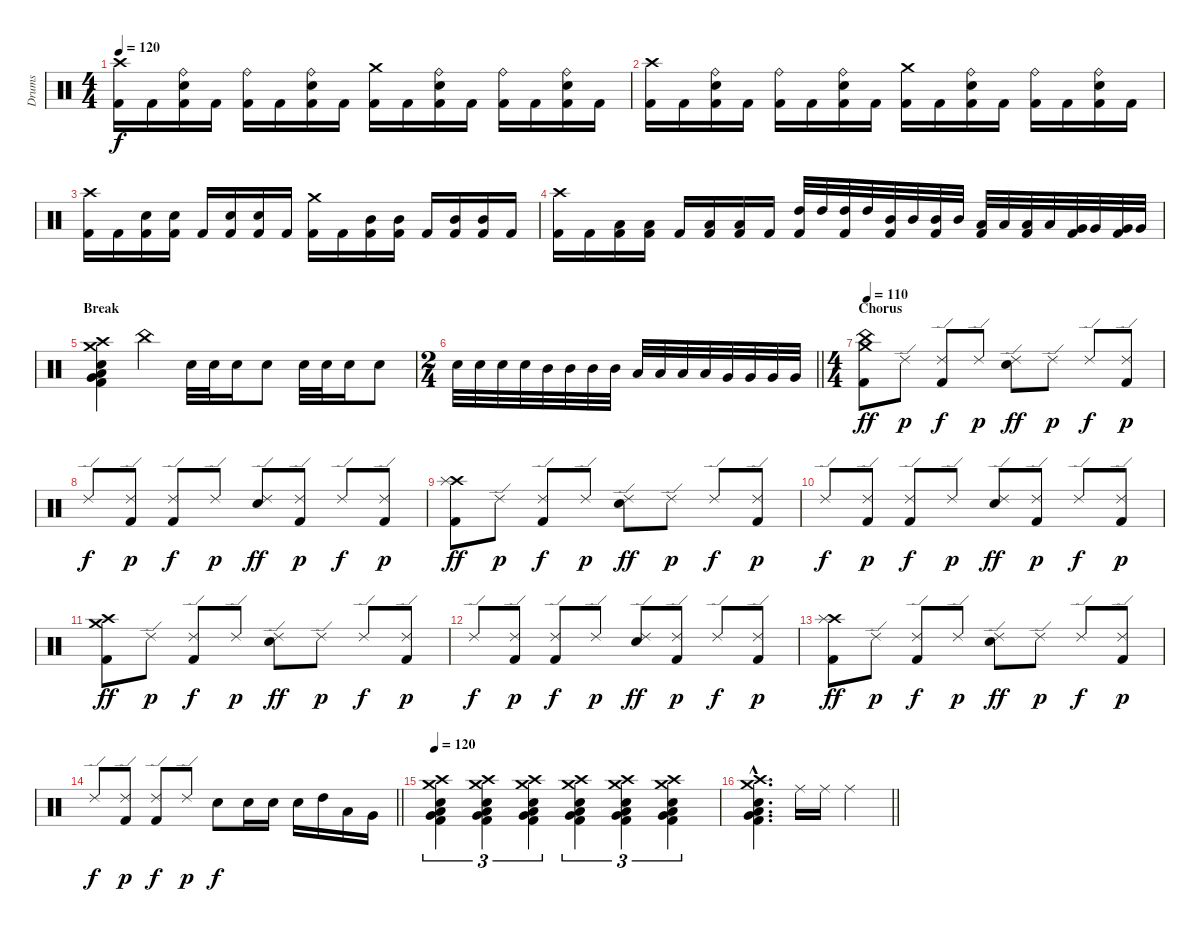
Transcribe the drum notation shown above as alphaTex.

\track ("Drums" "Drums") {instrument percussion}
\staff {score}
\articulation defaults
\ts (4 4)
\tempo 120
\clef neutral
\ks c
("Crash high (hit)" "Kick (hit) 2").16{dy f} "Kick (hit) 2".16 ("Ride (bell)" "Snare (hit) 2" "Kick (hit) 2").16 "Kick (hit) 2".16 ("Ride (bell)" "Kick (hit) 2").16 "Kick (hit) 2".16 ("Ride (bell)" "Snare (hit) 2" "Kick (hit) 2").16 "Kick (hit) 2".16 ("Crash medium (hit)" "Kick (hit) 2").16 "Kick (hit) 2".16 ("Ride (bell)" "Snare (hit) 2" "Kick (hit) 2").16 "Kick (hit) 2".16 ("Ride (bell)" "Kick (hit) 2").16 "Kick (hit) 2".16 ("Ride (bell)" "Snare (hit) 2" "Kick (hit) 2").16 "Kick (hit) 2".16 |
("Crash high (hit)" "Kick (hit) 2").16 "Kick (hit) 2".16 ("Ride (bell)" "Snare (hit) 2" "Kick (hit) 2").16 "Kick (hit) 2".16 ("Ride (bell)" "Kick (hit) 2").16 "Kick (hit) 2".16 ("Ride (bell)" "Snare (hit) 2" "Kick (hit) 2").16 "Kick (hit) 2".16 ("Crash medium (hit)" "Kick (hit) 2").16 "Kick (hit) 2".16 ("Ride (bell)" "Snare (hit) 2" "Kick (hit) 2").16 "Kick (hit) 2".16 ("Ride (bell)" "Kick (hit) 2").16 "Kick (hit) 2".16 ("Ride (bell)" "Snare (hit) 2" "Kick (hit) 2").16 "Kick (hit) 2".16 |
("Crash high (hit)" "Kick (hit) 2").16 "Kick (hit) 2".16 ("Snare (hit) 2" "Kick (hit) 2").16 ("Snare (hit) 2" "Kick (hit) 2").16 "Kick (hit) 2".16 ("Snare (hit) 2" "Kick (hit) 2").16 ("Snare (hit) 2" "Kick (hit) 2").16 "Kick (hit) 2".16 ("Crash medium (hit)" "Kick (hit) 2").16 "Kick (hit) 2".16 ("Mid Tom (hit)" "Kick (hit) 2").16 ("Mid Tom (hit)" "Kick (hit) 2").16 "Kick (hit) 2".16 ("Mid Tom (hit)" "Kick (hit) 2").16 ("Mid Tom (hit)" "Kick (hit) 2").16 "Kick (hit) 2".16 |
("Crash high (hit)" "Kick (hit) 2").16 "Kick (hit) 2".16 ("Low Tom (hit)" "Kick (hit) 2").16 ("Low Tom (hit)" "Kick (hit) 2").16 "Kick (hit) 2".16 ("Low Tom (hit)" "Kick (hit) 2").16 ("Low Tom (hit)" "Kick (hit) 2").16 "Kick (hit) 2".16 ("High Tom (hit)" "Kick (hit) 2").32 "High Tom (hit)".32 ("High Tom (hit)" "Kick (hit) 2").32 "High Tom (hit)".32 ("Mid Tom (hit)" "Kick (hit) 2").32 "Mid Tom (hit)".32 ("Mid Tom (hit)" "Kick (hit) 2").32 "Mid Tom (hit)".32 ("Low Tom (hit)" "Kick (hit) 2").32 "Low Tom (hit)".32 ("Low Tom (hit)" "Kick (hit) 2").32 "Low Tom (hit)".32 ("Very Low Tom (hit)" "Kick (hit) 2").32 "Very Low Tom (hit)".32 ("Very Low Tom (hit)" "Kick (hit) 2").32 "Very Low Tom (hit)".32 |
\section ("" "Break")
("Crash high (hit)" "Crash medium (hit)" "Kick (hit) 2" "Low Floor Tom (hit)" "Very Low Tom (hit)" "Snare (hit) 2").4 "China (hit)".4 "Snare (hit) 2".32 "Snare (hit) 2".32 "Snare (hit) 2".16 "Snare (hit) 2".8 "Snare (hit) 2".32 "Snare (hit) 2".32 "Snare (hit) 2".16 "Snare (hit) 2".8 |
\ts (2 4)
\barLineRight lightlight "Snare (hit) 2".32 "Snare (hit) 2".32 "Snare (hit) 2".32 "Snare (hit) 2".32 "Mid Tom (hit)".32 "Mid Tom (hit)".32 "Mid Tom (hit)".32 "Mid Tom (hit)".32 "Low Tom (hit)".32 "Low Tom (hit)".32 "Low Tom (hit)".32 "Low Tom (hit)".32 "Very Low Tom (hit)".32 "Very Low Tom (hit)".32 "Very Low Tom (hit)".32 "Very Low Tom (hit)".32
|
\ts (4 4)
\section ("" "Chorus")
\tempo 110
("China (hit)" "Crash medium (hit)" "Kick (hit) 2").8{dy ff} "Ride (edge) 2".8{dy p} ("Ride (edge) 2" "Kick (hit) 2").8{dy f} "Ride (edge) 2".8{dy p} ("Ride (edge) 2" "Snare (hit) 2").8{dy ff} "Ride (edge) 2".8{dy p} "Ride (edge) 2".8{dy f} ("Ride (edge) 2" "Kick (hit) 2").8{dy p} |
"Ride (edge) 2".8{dy f} ("Ride (edge) 2" "Kick (hit) 2").8{dy p} ("Ride (edge) 2" "Kick (hit) 2").8{dy f} "Ride (edge) 2".8{dy p} ("Ride (edge) 2" "Snare (hit) 2").8{dy ff} ("Ride (edge) 2" "Kick (hit) 2").8{dy p} "Ride (edge) 2".8{dy f} ("Ride (edge) 2" "Kick (hit) 2").8{dy p} |
("Crash high (hit)" "Splash (hit)" "Kick (hit) 2").8{dy ff} "Ride (edge) 2".8{dy p} ("Ride (edge) 2" "Kick (hit) 2").8{dy f} "Ride (edge) 2".8{dy p} ("Ride (edge) 2" "Snare (hit) 2").8{dy ff} "Ride (edge) 2".8{dy p} "Ride (edge) 2".8{dy f} ("Ride (edge) 2" "Kick (hit) 2").8{dy p} |
"Ride (edge) 2".8{dy f} ("Ride (edge) 2" "Kick (hit) 2").8{dy p} ("Ride (edge) 2" "Kick (hit) 2").8{dy f} "Ride (edge) 2".8{dy p} ("Ride (edge) 2" "Snare (hit) 2").8{dy ff} ("Ride (edge) 2" "Kick (hit) 2").8{dy p} "Ride (edge) 2".8{dy f} ("Ride (edge) 2" "Kick (hit) 2").8{dy p} |
("Crash high (hit)" "Crash medium (hit)" "Kick (hit) 2").8{dy ff} "Ride (edge) 2".8{dy p} ("Ride (edge) 2" "Kick (hit) 2").8{dy f} "Ride (edge) 2".8{dy p} ("Ride (edge) 2" "Snare (hit) 2").8{dy ff} "Ride (edge) 2".8{dy p} "Ride (edge) 2".8{dy f} ("Ride (edge) 2" "Kick (hit) 2").8{dy p} |
"Ride (edge) 2".8{dy f} ("Ride (edge) 2" "Kick (hit) 2").8{dy p} ("Ride (edge) 2" "Kick (hit) 2").8{dy f} "Ride (edge) 2".8{dy p} ("Ride (edge) 2" "Snare (hit) 2").8{dy ff} ("Ride (edge) 2" "Kick (hit) 2").8{dy p} "Ride (edge) 2".8{dy f} ("Ride (edge) 2" "Kick (hit) 2").8{dy p} |
("Crash high (hit)" "Splash (hit)" "Kick (hit) 2").8{dy ff} "Ride (edge) 2".8{dy p} ("Ride (edge) 2" "Kick (hit) 2").8{dy f} "Ride (edge) 2".8{dy p} ("Ride (edge) 2" "Snare (hit) 2").8{dy ff} "Ride (edge) 2".8{dy p} "Ride (edge) 2".8{dy f} ("Ride (edge) 2" "Kick (hit) 2").8{dy p} |
\barLineRight lightlight "Ride (edge) 2".8{dy f}
("Ride (edge) 2" "Kick (hit) 2").8{dy p} ("Ride (edge) 2" "Kick (hit) 2").8{dy f} "Ride (edge) 2".8{dy p} "Snare (hit) 2".8{dy f} "Snare (hit) 2".16 "Snare (hit) 2".16 "Snare (hit) 2".16 "High Tom (hit)".16 "Low Tom (hit)".16 "Very Low Tom (hit)".16 |
\tempo 120
("Crash high (hit)" "Kick (hit) 2" "Low Floor Tom (hit)" "Very Low Tom (hit)" "Crash medium (hit)" "Snare (hit) 2").4{tu (3 2)} ("Crash high (hit)" "Kick (hit) 2" "Low Floor Tom (hit)" "Very Low Tom (hit)" "Crash medium (hit)" "Snare (hit) 2").4{tu (3 2)} ("Crash high (hit)" "Kick (hit) 2" "Low Floor Tom (hit)" "Very Low Tom (hit)" "Crash medium (hit)" "Snare (hit) 2").4{tu (3 2)} ("Crash high (hit)" "Kick (hit) 2" "Low Floor Tom (hit)" "Very Low Tom (hit)" "Crash medium (hit)" "Snare (hit) 2").4{tu (3 2)} ("Crash high (hit)" "Kick (hit) 2" "Low Floor Tom (hit)" "Very Low Tom (hit)" "Crash medium (hit)" "Snare (hit) 2").4{tu (3 2)} ("Crash high (hit)" "Kick (hit) 2" "Low Floor Tom (hit)" "Very Low Tom (hit)" "Crash medium (hit)" "Snare (hit) 2").4{tu (3 2)} |
\barLineRight lightlight
("Crash high (hit)"{hac} "Kick (hit) 2"{hac} "Low Floor Tom (hit)"{hac} "Very Low Tom (hit)"{hac} "Crash medium (hit)"{hac} "Snare (hit) 2"{hac}).4{d} "Ride (middle)".16 "Ride (middle)".16 "Ride (middle)".2
